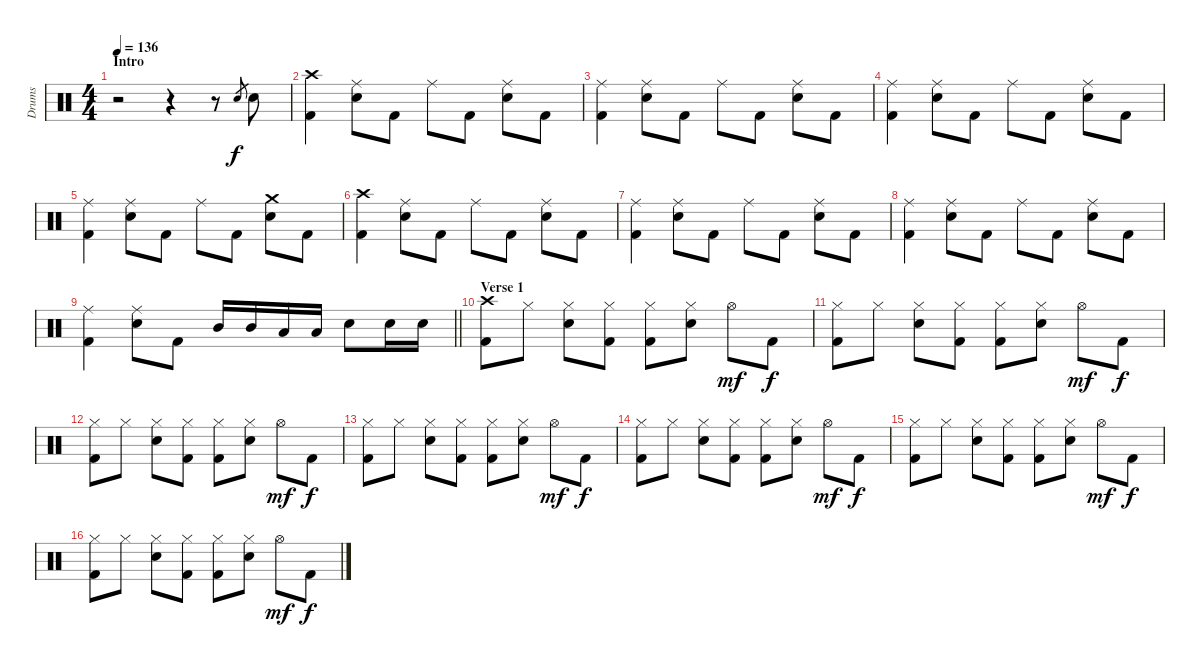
\track ("Drums" "Drums") {instrument percussion}
\staff {score}
\articulation defaults
\ts (4 4)
\section ("" "Intro")
\tempo 136
\clef neutral
\ks c
r.2{dy f} r.4 r.8 "Electric Snare (hit)".8{gr} "Electric Snare (hit)".8 |
("Crash high (hit)" "Kick (hit) 2").4 ("Ride (middle)" "Electric Snare (hit)").8 "Kick (hit) 2".8 "Ride (middle)".8 "Kick (hit) 2".8 ("Ride (middle)" "Electric Snare (hit)").8 "Kick (hit) 2".8 |
("Ride (middle)" "Kick (hit) 2").4 ("Ride (middle)" "Electric Snare (hit)").8 "Kick (hit) 2".8 "Ride (middle)".8 "Kick (hit) 2".8 ("Ride (middle)" "Electric Snare (hit)").8 "Kick (hit) 2".8 |
("Ride (middle)" "Kick (hit) 2").4 ("Ride (middle)" "Electric Snare (hit)").8 "Kick (hit) 2".8 "Ride (middle)".8 "Kick (hit) 2".8 ("Ride (middle)" "Electric Snare (hit)").8 "Kick (hit) 2".8 |
("Ride (middle)" "Kick (hit) 2").4 ("Ride (middle)" "Electric Snare (hit)").8 "Kick (hit) 2".8 "Ride (middle)".8 "Kick (hit) 2".8 ("Crash medium (hit)" "Electric Snare (hit)").8 "Kick (hit) 2".8 |
("Crash high (hit)" "Kick (hit) 2").4 ("Ride (middle)" "Electric Snare (hit)").8 "Kick (hit) 2".8 "Ride (middle)".8 "Kick (hit) 2".8 ("Ride (middle)" "Electric Snare (hit)").8 "Kick (hit) 2".8 |
("Ride (middle)" "Kick (hit) 2").4 ("Ride (middle)" "Electric Snare (hit)").8 "Kick (hit) 2".8 "Ride (middle)".8 "Kick (hit) 2".8 ("Ride (middle)" "Electric Snare (hit)").8 "Kick (hit) 2".8 |
("Ride (middle)" "Kick (hit) 2").4 ("Ride (middle)" "Electric Snare (hit)").8 "Kick (hit) 2".8 "Ride (middle)".8 "Kick (hit) 2".8 ("Ride (middle)" "Electric Snare (hit)").8 "Kick (hit) 2".8 |
\barLineRight lightlight
("Ride (middle)" "Kick (hit) 2").4 ("Ride (middle)" "Electric Snare (hit)").8 "Kick (hit) 2".8 "Mid Tom (hit)".16 "Mid Tom (hit)".16 "Low Tom (hit)".16 "Low Tom (hit)".16 "Electric Snare (hit)".8 "Electric Snare (hit)".16 "Electric Snare (hit)".16 |
\section ("" "Verse 1")
("Crash high (hit)" "Kick (hit) 2").8 "Hi-Hat (closed)".8 ("Hi-Hat (closed)" "Electric Snare (hit)").8 ("Hi-Hat (closed)" "Kick (hit) 2").8 ("Hi-Hat (closed)" "Kick (hit) 2").8 ("Hi-Hat (closed)" "Electric Snare (hit)").8 "Hi-Hat (open)".8{dy mf} "Kick (hit) 2".8{dy f} |
("Hi-Hat (closed)" "Kick (hit) 2").8 "Hi-Hat (closed)".8 ("Hi-Hat (closed)" "Electric Snare (hit)").8 ("Hi-Hat (closed)" "Kick (hit) 2").8 ("Hi-Hat (closed)" "Kick (hit) 2").8 ("Hi-Hat (closed)" "Electric Snare (hit)").8 "Hi-Hat (open)".8{dy mf} "Kick (hit) 2".8{dy f} |
("Hi-Hat (closed)" "Kick (hit) 2").8 "Hi-Hat (closed)".8 ("Hi-Hat (closed)" "Electric Snare (hit)").8 ("Hi-Hat (closed)" "Kick (hit) 2").8 ("Hi-Hat (closed)" "Kick (hit) 2").8 ("Hi-Hat (closed)" "Electric Snare (hit)").8 "Hi-Hat (open)".8{dy mf} "Kick (hit) 2".8{dy f} |
("Hi-Hat (closed)" "Kick (hit) 2").8 "Hi-Hat (closed)".8 ("Hi-Hat (closed)" "Electric Snare (hit)").8 ("Hi-Hat (closed)" "Kick (hit) 2").8 ("Hi-Hat (closed)" "Kick (hit) 2").8 ("Hi-Hat (closed)" "Electric Snare (hit)").8 "Hi-Hat (open)".8{dy mf} "Kick (hit) 2".8{dy f} |
("Hi-Hat (closed)" "Kick (hit) 2").8 "Hi-Hat (closed)".8 ("Hi-Hat (closed)" "Electric Snare (hit)").8 ("Hi-Hat (closed)" "Kick (hit) 2").8 ("Hi-Hat (closed)" "Kick (hit) 2").8 ("Hi-Hat (closed)" "Electric Snare (hit)").8 "Hi-Hat (open)".8{dy mf} "Kick (hit) 2".8{dy f} |
("Hi-Hat (closed)" "Kick (hit) 2").8 "Hi-Hat (closed)".8 ("Hi-Hat (closed)" "Electric Snare (hit)").8 ("Hi-Hat (closed)" "Kick (hit) 2").8 ("Hi-Hat (closed)" "Kick (hit) 2").8 ("Hi-Hat (closed)" "Electric Snare (hit)").8 "Hi-Hat (open)".8{dy mf} "Kick (hit) 2".8{dy f} |
("Hi-Hat (closed)" "Kick (hit) 2").8 "Hi-Hat (closed)".8 ("Hi-Hat (closed)" "Electric Snare (hit)").8 ("Hi-Hat (closed)" "Kick (hit) 2").8 ("Hi-Hat (closed)" "Kick (hit) 2").8 ("Hi-Hat (closed)" "Electric Snare (hit)").8 "Hi-Hat (open)".8{dy mf} "Kick (hit) 2".8{dy f}
